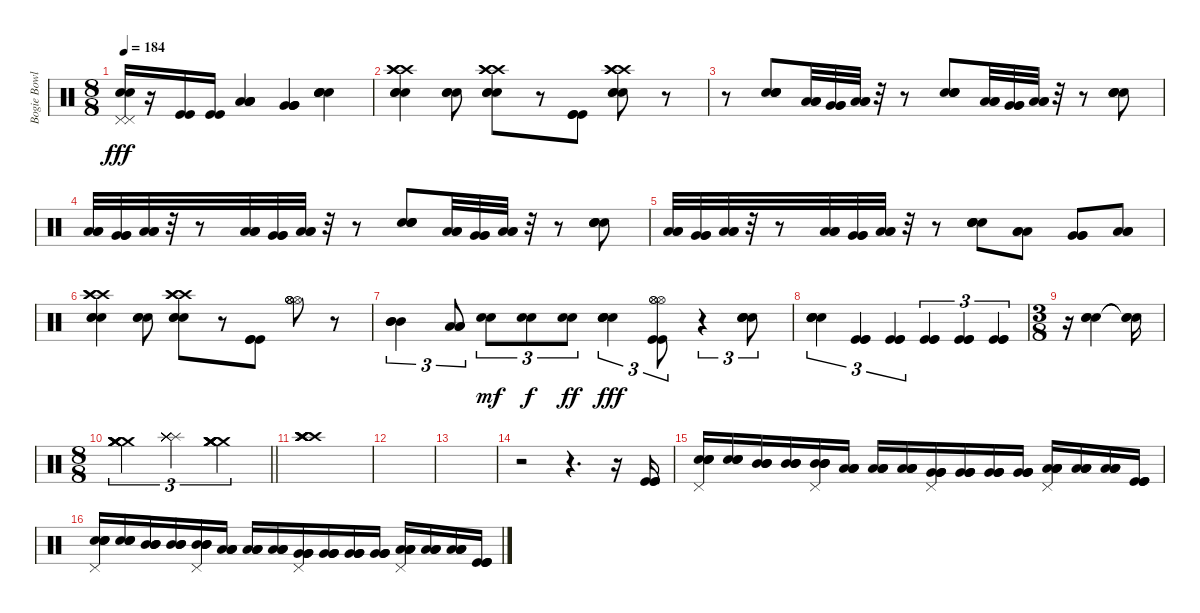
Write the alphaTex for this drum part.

\track ("Bogie Bowles Drums" "Bogie Bowl") {instrument percussion}
\staff {score}
\articulation defaults
\ts (8 8)
\tempo 184
\clef neutral
\ks c
("Pedal Hi-Hat (hit)" "Pedal Hi-Hat (hit)" "Snare (hit) 2" "Snare (hit) 2").16{dy fff} r.16 ("Kick (hit)" "Kick (hit)").16 ("Kick (hit)" "Kick (hit)").16 ("Low Tom (hit)" "Low Tom (hit)" "Low Tom (hit)" "Low Tom (hit)").4 ("Very Low Tom (hit)" "Very Low Tom (hit)" "Very Low Tom (hit)" "Very Low Tom (hit)").4 ("Snare (hit) 2" "Snare (hit) 2" "Snare (hit) 2" "Snare (hit) 2").4 |
("Snare (hit) 2" "Snare (hit) 2" "Snare (hit) 2" "Crash high (hit)" "Crash high (hit)" "Crash high (hit)").4 ("Snare (hit) 2" "Snare (hit) 2" "Snare (hit) 2").8 ("Snare (hit) 2" "Snare (hit) 2" "Snare (hit) 2" "Crash high (hit)" "Crash high (hit)" "Crash high (hit)").8 r.8 ("Kick (hit)" "Kick (hit)" "Kick (hit)").8 ("Snare (hit) 2" "Snare (hit) 2" "Snare (hit) 2" "Crash high (hit)" "Crash high (hit)" "Crash high (hit)").8 r.8 |
r.8 ("Snare (hit) 2" "Snare (hit) 2" "Snare (hit) 2" "Snare (hit) 2").8 ("Low Tom (hit)" "Low Tom (hit)" "Low Tom (hit)").32 ("Very Low Tom (hit)" "Very Low Tom (hit)" "Very Low Tom (hit)").32 ("Low Floor Tom (hit)" "Low Floor Tom (hit)" "Low Floor Tom (hit)").32 r.32 r.8 ("Snare (hit) 2" "Snare (hit) 2" "Snare (hit) 2" "Snare (hit) 2").8 ("Low Tom (hit)" "Low Tom (hit)" "Low Tom (hit)").32 ("Very Low Tom (hit)" "Very Low Tom (hit)" "Very Low Tom (hit)").32 ("Low Floor Tom (hit)" "Low Floor Tom (hit)" "Low Floor Tom (hit)").32 r.32 r.8 ("Snare (hit) 2" "Snare (hit) 2" "Snare (hit) 2" "Snare (hit) 2").8 |
("Low Tom (hit)" "Low Tom (hit)" "Low Tom (hit)").32 ("Very Low Tom (hit)" "Very Low Tom (hit)" "Very Low Tom (hit)").32 ("Low Floor Tom (hit)" "Low Floor Tom (hit)" "Low Floor Tom (hit)").32 r.32 r.8 ("Low Tom (hit)" "Low Tom (hit)" "Low Tom (hit)").32 ("Very Low Tom (hit)" "Very Low Tom (hit)" "Very Low Tom (hit)").32 ("Low Floor Tom (hit)" "Low Floor Tom (hit)" "Low Floor Tom (hit)").32 r.32 r.8 ("Snare (hit) 2" "Snare (hit) 2" "Snare (hit) 2" "Snare (hit) 2").8 ("Low Tom (hit)" "Low Tom (hit)" "Low Tom (hit)").32 ("Very Low Tom (hit)" "Very Low Tom (hit)" "Very Low Tom (hit)").32 ("Low Floor Tom (hit)" "Low Floor Tom (hit)" "Low Floor Tom (hit)").32 r.32 r.8 ("Snare (hit) 2" "Snare (hit) 2" "Snare (hit) 2" "Snare (hit) 2").8 |
("Low Tom (hit)" "Low Tom (hit)" "Low Tom (hit)").32 ("Very Low Tom (hit)" "Very Low Tom (hit)" "Very Low Tom (hit)").32 ("Low Floor Tom (hit)" "Low Floor Tom (hit)" "Low Floor Tom (hit)").32 r.32 r.8 ("Low Tom (hit)" "Low Tom (hit)" "Low Tom (hit)").32 ("Very Low Tom (hit)" "Very Low Tom (hit)" "Very Low Tom (hit)").32 ("Low Floor Tom (hit)" "Low Floor Tom (hit)" "Low Floor Tom (hit)").32 r.32 r.8 ("Snare (hit) 2" "Snare (hit) 2" "Snare (hit) 2" "Snare (hit) 2").8 ("Low Tom (hit)" "Low Tom (hit)" "Low Tom (hit)").8 ("Very Low Tom (hit)" "Very Low Tom (hit)" "Very Low Tom (hit)").8 ("Low Floor Tom (hit)" "Low Floor Tom (hit)" "Low Floor Tom (hit)").8 |
("Snare (hit) 2" "Snare (hit) 2" "Snare (hit) 2" "Crash high (hit)" "Crash high (hit)" "Crash high (hit)").4 ("Snare (hit) 2" "Snare (hit) 2" "Snare (hit) 2").8 ("Snare (hit) 2" "Snare (hit) 2" "Snare (hit) 2" "Crash high (hit)" "Crash high (hit)" "Crash high (hit)").8 r.8 ("Kick (hit)" "Kick (hit)" "Kick (hit)").8 ("Hi-Hat (open)" "Hi-Hat (open)" "Hi-Hat (open)" "Hi-Hat (open)").8 r.8 |
("Mid Tom (hit)" "Mid Tom (hit)" "Mid Tom (hit)").4{tu (3 2)} ("Low Tom (hit)" "Low Tom (hit)" "Low Tom (hit)").8{tu (3 2)} ("Snare (hit) 2" "Snare (hit) 2").8{tu (3 2) dy mf} ("Snare (hit) 2" "Snare (hit) 2").8{tu (3 2) dy f} ("Snare (hit) 2" "Snare (hit) 2").8{tu (3 2) dy ff} ("Snare (hit) 2" "Snare (hit) 2" "Snare (hit) 2" "Snare (hit) 2").4{tu (3 2) dy fff} ("Hi-Hat (open)" "Hi-Hat (open)" "Hi-Hat (open)" "Kick (hit)" "Kick (hit)").8{tu (3 2)} r.4{tu (3 2)} ("Snare (hit) 2" "Snare (hit) 2" "Snare (hit) 2" "Snare (hit) 2").8{tu (3 2)} |
("Snare (hit) 2" "Snare (hit) 2" "Snare (hit) 2" "Snare (hit) 2").4{tu (3 2)} ("Kick (hit)" "Kick (hit)" "Kick (hit)").4{tu (3 2)} ("Kick (hit)" "Kick (hit)" "Kick (hit)").4{tu (3 2)} ("Kick (hit)" "Kick (hit)" "Kick (hit)").4{tu (3 2)} ("Kick (hit)" "Kick (hit)" "Kick (hit)").4{tu (3 2)} ("Kick (hit)" "Kick (hit)" "Kick (hit)").4{tu (3 2)} |
\ts (3 8)
r.16 ("Snare (hit) 2" "Snare (hit) 2" "Snare (hit) 2").4 ("Snare (hit)"{t} "Snare (hit)"{t} "Snare (hit)"{t}).16 |
\ts (8 8)
\barLineRight lightlight
("Crash medium (hit)" "Crash medium (hit)" "Crash medium (hit)" "Crash medium (hit)" "Crash medium (hit)" "Crash medium (hit)").2{tu (3 2)} ("Splash (hit)" "Splash (hit)" "Splash (hit)" "Splash (hit)" "Splash (hit)" "Splash (hit)").2{tu (3 2)} ("Crash medium (hit)" "Crash medium (hit)" "Crash medium (hit)" "Crash medium (hit)" "Crash medium (hit)" "Crash medium (hit)").2{tu (3 2)} |
("Crash high (hit)" "Crash high (hit)" "Crash high (hit)" "Crash high (hit)" "Crash high (hit)" "Crash high (hit)").1 |
|
|
r.2 r.4{d} r.16 ("Kick (hit)" "Kick (hit)" "Kick (hit)").16 |
("Pedal Hi-Hat (hit)" "Snare (hit) 2" "Snare (hit) 2" "Snare (hit) 2" "Snare (hit) 2").16 ("Snare (hit) 2" "Snare (hit) 2" "Snare (hit) 2" "Snare (hit) 2").16 ("Mid Tom (hit)" "Mid Tom (hit)" "Mid Tom (hit)" "Mid Tom (hit)").16 ("Mid Tom (hit)" "Mid Tom (hit)" "Mid Tom (hit)" "Mid Tom (hit)").16 ("Pedal Hi-Hat (hit)" "Mid Tom (hit)" "Mid Tom (hit)" "Mid Tom (hit)" "Mid Tom (hit)").16 ("Low Tom (hit)" "Low Tom (hit)" "Low Tom (hit)" "Low Tom (hit)").16 ("Low Tom (hit)" "Low Tom (hit)" "Low Tom (hit)" "Low Tom (hit)").16 ("Low Tom (hit)" "Low Tom (hit)" "Low Tom (hit)" "Low Tom (hit)").16 ("Pedal Hi-Hat (hit)" "Very Low Tom (hit)" "Very Low Tom (hit)" "Very Low Tom (hit)" "Very Low Tom (hit)").16 ("Very Low Tom (hit)" "Very Low Tom (hit)" "Very Low Tom (hit)" "Very Low Tom (hit)").16 ("Very Low Tom (hit)" "Very Low Tom (hit)" "Very Low Tom (hit)" "Very Low Tom (hit)").16 ("Very Low Tom (hit)" "Very Low Tom (hit)" "Very Low Tom (hit)" "Very Low Tom (hit)").16 ("Pedal Hi-Hat (hit)" "Low Floor Tom (hit)" "Low Floor Tom (hit)" "Low Floor Tom (hit)" "Low Floor Tom (hit)").16 ("Low Floor Tom (hit)" "Low Floor Tom (hit)" "Low Floor Tom (hit)" "Low Floor Tom (hit)").16 ("Low Floor Tom (hit)" "Low Floor Tom (hit)" "Low Floor Tom (hit)" "Low Floor Tom (hit)").16 ("Kick (hit)" "Kick (hit)" "Kick (hit)" "Kick (hit)").16 |
("Pedal Hi-Hat (hit)" "Snare (hit) 2" "Snare (hit) 2" "Snare (hit) 2" "Snare (hit) 2").16 ("Snare (hit) 2" "Snare (hit) 2" "Snare (hit) 2" "Snare (hit) 2").16 ("Mid Tom (hit)" "Mid Tom (hit)" "Mid Tom (hit)" "Mid Tom (hit)").16 ("Mid Tom (hit)" "Mid Tom (hit)" "Mid Tom (hit)" "Mid Tom (hit)").16 ("Pedal Hi-Hat (hit)" "Mid Tom (hit)" "Mid Tom (hit)" "Mid Tom (hit)" "Mid Tom (hit)").16 ("Low Tom (hit)" "Low Tom (hit)" "Low Tom (hit)" "Low Tom (hit)").16 ("Low Tom (hit)" "Low Tom (hit)" "Low Tom (hit)" "Low Tom (hit)").16 ("Low Tom (hit)" "Low Tom (hit)" "Low Tom (hit)" "Low Tom (hit)").16 ("Pedal Hi-Hat (hit)" "Very Low Tom (hit)" "Very Low Tom (hit)" "Very Low Tom (hit)" "Very Low Tom (hit)").16 ("Very Low Tom (hit)" "Very Low Tom (hit)" "Very Low Tom (hit)" "Very Low Tom (hit)").16 ("Very Low Tom (hit)" "Very Low Tom (hit)" "Very Low Tom (hit)" "Very Low Tom (hit)").16 ("Very Low Tom (hit)" "Very Low Tom (hit)" "Very Low Tom (hit)" "Very Low Tom (hit)").16 ("Pedal Hi-Hat (hit)" "Low Floor Tom (hit)" "Low Floor Tom (hit)" "Low Floor Tom (hit)" "Low Floor Tom (hit)").16 ("Low Floor Tom (hit)" "Low Floor Tom (hit)" "Low Floor Tom (hit)" "Low Floor Tom (hit)").16 ("Low Floor Tom (hit)" "Low Floor Tom (hit)" "Low Floor Tom (hit)" "Low Floor Tom (hit)").16 ("Kick (hit)" "Kick (hit)" "Kick (hit)" "Kick (hit)").16
